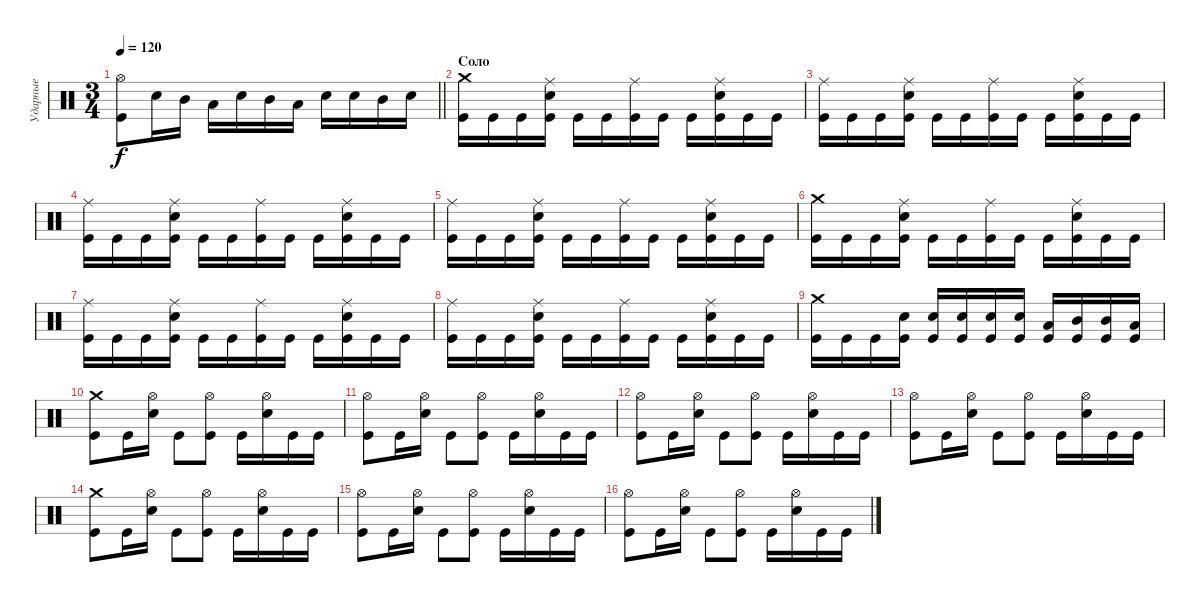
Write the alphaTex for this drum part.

\track ("Ударные" "Ударные") {instrument percussion}
\staff {score}
\articulation defaults
\ts (3 4)
\tempo 120
\clef neutral
\barLineRight lightlight
\ks c
("Kick (hit)" "Hi-Hat (open)").8{dy f} "Snare (hit) 2".16 "Mid Tom (hit)".16 "Low Tom (hit)".16 "Snare (hit) 2".16 "Mid Tom (hit)".16 "Low Tom (hit)".16 "Snare (hit) 2".16 "Snare (hit) 2".16 "Mid Tom (hit)".16 "Snare (hit) 2".16 |
\section ("" "Соло")
("Kick (hit)" "Crash medium (hit)").16 "Kick (hit)".16 "Kick (hit)".16 ("Kick (hit)" "Snare (hit) 2" "Ride (middle)").16 "Kick (hit)".16 "Kick (hit)".16 ("Kick (hit)" "Ride (middle)").16 "Kick (hit)".16 "Kick (hit)".16 ("Kick (hit)" "Snare (hit) 2" "Ride (middle)").16 "Kick (hit)".16 "Kick (hit)".16 |
("Kick (hit)" "Ride (middle)").16 "Kick (hit)".16 "Kick (hit)".16 ("Kick (hit)" "Snare (hit) 2" "Ride (middle)").16 "Kick (hit)".16 "Kick (hit)".16 ("Kick (hit)" "Ride (middle)").16 "Kick (hit)".16 "Kick (hit)".16 ("Kick (hit)" "Snare (hit) 2" "Ride (middle)").16 "Kick (hit)".16 "Kick (hit)".16 |
("Kick (hit)" "Ride (middle)").16 "Kick (hit)".16 "Kick (hit)".16 ("Kick (hit)" "Snare (hit) 2" "Ride (middle)").16 "Kick (hit)".16 "Kick (hit)".16 ("Kick (hit)" "Ride (middle)").16 "Kick (hit)".16 "Kick (hit)".16 ("Kick (hit)" "Snare (hit) 2" "Ride (middle)").16 "Kick (hit)".16 "Kick (hit)".16 |
("Kick (hit)" "Ride (middle)").16 "Kick (hit)".16 "Kick (hit)".16 ("Kick (hit)" "Snare (hit) 2" "Ride (middle)").16 "Kick (hit)".16 "Kick (hit)".16 ("Kick (hit)" "Ride (middle)").16 "Kick (hit)".16 "Kick (hit)".16 ("Kick (hit)" "Snare (hit) 2" "Ride (middle)").16 "Kick (hit)".16 "Kick (hit)".16 |
("Kick (hit)" "Crash medium (hit)").16 "Kick (hit)".16 "Kick (hit)".16 ("Kick (hit)" "Snare (hit) 2" "Ride (middle)").16 "Kick (hit)".16 "Kick (hit)".16 ("Kick (hit)" "Ride (middle)").16 "Kick (hit)".16 "Kick (hit)".16 ("Kick (hit)" "Snare (hit) 2" "Ride (middle)").16 "Kick (hit)".16 "Kick (hit)".16 |
("Kick (hit)" "Ride (middle)").16 "Kick (hit)".16 "Kick (hit)".16 ("Kick (hit)" "Snare (hit) 2" "Ride (middle)").16 "Kick (hit)".16 "Kick (hit)".16 ("Kick (hit)" "Ride (middle)").16 "Kick (hit)".16 "Kick (hit)".16 ("Kick (hit)" "Snare (hit) 2" "Ride (middle)").16 "Kick (hit)".16 "Kick (hit)".16 |
("Kick (hit)" "Ride (middle)").16 "Kick (hit)".16 "Kick (hit)".16 ("Kick (hit)" "Snare (hit) 2" "Ride (middle)").16 "Kick (hit)".16 "Kick (hit)".16 ("Kick (hit)" "Ride (middle)").16 "Kick (hit)".16 "Kick (hit)".16 ("Kick (hit)" "Snare (hit) 2" "Ride (middle)").16 "Kick (hit)".16 "Kick (hit)".16 |
("Kick (hit)" "Crash medium (hit)").16 "Kick (hit)".16 "Kick (hit)".16 ("Kick (hit)" "Snare (hit) 2").16 ("Kick (hit)" "Snare (hit) 2").16 ("Kick (hit)" "Snare (hit) 2").16 ("Kick (hit)" "Snare (hit) 2").16 ("Kick (hit)" "Snare (hit) 2").16 ("Kick (hit)" "Low Tom (hit)").16 ("Kick (hit)" "Mid Tom (hit)").16 ("Kick (hit)" "Mid Tom (hit)").16 ("Kick (hit)" "Low Tom (hit)").16 |
("Kick (hit)" "Crash medium (hit)").8 "Kick (hit)".16 ("Snare (hit) 2" "Hi-Hat (open)").16 "Kick (hit)".8 ("Kick (hit)" "Hi-Hat (open)").8 "Kick (hit)".16 ("Snare (hit) 2" "Hi-Hat (open)").16 "Kick (hit)".16 "Kick (hit)".16 |
("Kick (hit)" "Hi-Hat (open)").8 "Kick (hit)".16 ("Snare (hit) 2" "Hi-Hat (open)").16 "Kick (hit)".8 ("Kick (hit)" "Hi-Hat (open)").8 "Kick (hit)".16 ("Snare (hit) 2" "Hi-Hat (open)").16 "Kick (hit)".16 "Kick (hit)".16 |
("Kick (hit)" "Hi-Hat (open)").8 "Kick (hit)".16 ("Snare (hit) 2" "Hi-Hat (open)").16 "Kick (hit)".8 ("Kick (hit)" "Hi-Hat (open)").8 "Kick (hit)".16 ("Snare (hit) 2" "Hi-Hat (open)").16 "Kick (hit)".16 "Kick (hit)".16 |
("Kick (hit)" "Hi-Hat (open)").8 "Kick (hit)".16 ("Snare (hit) 2" "Hi-Hat (open)").16 "Kick (hit)".8 ("Kick (hit)" "Hi-Hat (open)").8 "Kick (hit)".16 ("Snare (hit) 2" "Hi-Hat (open)").16 "Kick (hit)".16 "Kick (hit)".16 |
("Kick (hit)" "Crash medium (hit)").8 "Kick (hit)".16 ("Snare (hit) 2" "Hi-Hat (open)").16 "Kick (hit)".8 ("Kick (hit)" "Hi-Hat (open)").8 "Kick (hit)".16 ("Snare (hit) 2" "Hi-Hat (open)").16 "Kick (hit)".16 "Kick (hit)".16 |
("Kick (hit)" "Hi-Hat (open)").8 "Kick (hit)".16 ("Snare (hit) 2" "Hi-Hat (open)").16 "Kick (hit)".8 ("Kick (hit)" "Hi-Hat (open)").8 "Kick (hit)".16 ("Snare (hit) 2" "Hi-Hat (open)").16 "Kick (hit)".16 "Kick (hit)".16 |
("Kick (hit)" "Hi-Hat (open)").8 "Kick (hit)".16 ("Snare (hit) 2" "Hi-Hat (open)").16 "Kick (hit)".8 ("Kick (hit)" "Hi-Hat (open)").8 "Kick (hit)".16 ("Snare (hit) 2" "Hi-Hat (open)").16 "Kick (hit)".16 "Kick (hit)".16
